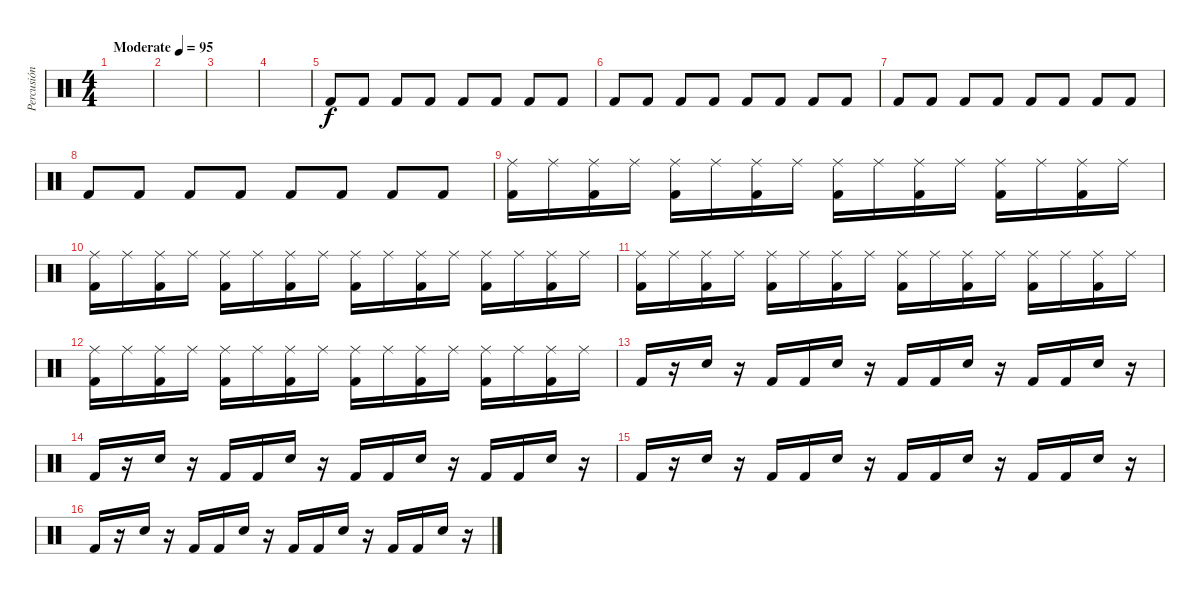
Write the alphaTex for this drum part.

\track ("Percusión" "Percusión") {instrument percussion}
\staff {score}
\articulation defaults
\ts (4 4)
\tempo (95 "Moderate")
\clef neutral
\ks c
|
|
|
|
"Kick (hit) 2".8 "Kick (hit) 2".8 "Kick (hit) 2".8 "Kick (hit) 2".8 "Kick (hit) 2".8 "Kick (hit) 2".8 "Kick (hit) 2".8 "Kick (hit) 2".8 |
"Kick (hit) 2".8 "Kick (hit) 2".8 "Kick (hit) 2".8 "Kick (hit) 2".8 "Kick (hit) 2".8 "Kick (hit) 2".8 "Kick (hit) 2".8 "Kick (hit) 2".8 |
"Kick (hit) 2".8 "Kick (hit) 2".8 "Kick (hit) 2".8 "Kick (hit) 2".8 "Kick (hit) 2".8 "Kick (hit) 2".8 "Kick (hit) 2".8 "Kick (hit) 2".8 |
"Kick (hit) 2".8 "Kick (hit) 2".8 "Kick (hit) 2".8 "Kick (hit) 2".8 "Kick (hit) 2".8 "Kick (hit) 2".8 "Kick (hit) 2".8 "Kick (hit) 2".8 |
("Ride (middle)" "Kick (hit) 2").16 "Ride (middle)".16 ("Ride (middle)" "Kick (hit) 2").16 "Ride (middle)".16 ("Ride (middle)" "Kick (hit) 2").16 "Ride (middle)".16 ("Ride (middle)" "Kick (hit) 2").16 "Ride (middle)".16 ("Ride (middle)" "Kick (hit) 2").16 "Ride (middle)".16 ("Ride (middle)" "Kick (hit) 2").16 "Ride (middle)".16 ("Ride (middle)" "Kick (hit) 2").16 "Ride (middle)".16 ("Ride (middle)" "Kick (hit) 2").16 "Ride (middle)".16 |
("Ride (middle)" "Kick (hit) 2").16 "Ride (middle)".16 ("Ride (middle)" "Kick (hit) 2").16 "Ride (middle)".16 ("Ride (middle)" "Kick (hit) 2").16 "Ride (middle)".16 ("Ride (middle)" "Kick (hit) 2").16 "Ride (middle)".16 ("Ride (middle)" "Kick (hit) 2").16 "Ride (middle)".16 ("Ride (middle)" "Kick (hit) 2").16 "Ride (middle)".16 ("Ride (middle)" "Kick (hit) 2").16 "Ride (middle)".16 ("Ride (middle)" "Kick (hit) 2").16 "Ride (middle)".16 |
("Ride (middle)" "Kick (hit) 2").16 "Ride (middle)".16 ("Ride (middle)" "Kick (hit) 2").16 "Ride (middle)".16 ("Ride (middle)" "Kick (hit) 2").16 "Ride (middle)".16 ("Ride (middle)" "Kick (hit) 2").16 "Ride (middle)".16 ("Ride (middle)" "Kick (hit) 2").16 "Ride (middle)".16 ("Ride (middle)" "Kick (hit) 2").16 "Ride (middle)".16 ("Ride (middle)" "Kick (hit) 2").16 "Ride (middle)".16 ("Ride (middle)" "Kick (hit) 2").16 "Ride (middle)".16 |
("Ride (middle)" "Kick (hit) 2").16 "Ride (middle)".16 ("Ride (middle)" "Kick (hit) 2").16 "Ride (middle)".16 ("Ride (middle)" "Kick (hit) 2").16 "Ride (middle)".16 ("Ride (middle)" "Kick (hit) 2").16 "Ride (middle)".16 ("Ride (middle)" "Kick (hit) 2").16 "Ride (middle)".16 ("Ride (middle)" "Kick (hit) 2").16 "Ride (middle)".16 ("Ride (middle)" "Kick (hit) 2").16 "Ride (middle)".16 ("Ride (middle)" "Kick (hit) 2").16 "Ride (middle)".16 |
"Kick (hit) 2".16 r.16 "Snare (hit) 2".16 r.16 "Kick (hit) 2".16 "Kick (hit) 2".16 "Snare (hit) 2".16 r.16 "Kick (hit) 2".16 "Kick (hit) 2".16 "Snare (hit) 2".16 r.16 "Kick (hit) 2".16 "Kick (hit) 2".16 "Snare (hit) 2".16 r.16 |
"Kick (hit) 2".16 r.16 "Snare (hit) 2".16 r.16 "Kick (hit) 2".16 "Kick (hit) 2".16 "Snare (hit) 2".16 r.16 "Kick (hit) 2".16 "Kick (hit) 2".16 "Snare (hit) 2".16 r.16 "Kick (hit) 2".16 "Kick (hit) 2".16 "Snare (hit) 2".16 r.16 |
"Kick (hit) 2".16 r.16 "Snare (hit) 2".16 r.16 "Kick (hit) 2".16 "Kick (hit) 2".16 "Snare (hit) 2".16 r.16 "Kick (hit) 2".16 "Kick (hit) 2".16 "Snare (hit) 2".16 r.16 "Kick (hit) 2".16 "Kick (hit) 2".16 "Snare (hit) 2".16 r.16 |
"Kick (hit) 2".16 r.16 "Snare (hit) 2".16 r.16 "Kick (hit) 2".16 "Kick (hit) 2".16 "Snare (hit) 2".16 r.16 "Kick (hit) 2".16 "Kick (hit) 2".16 "Snare (hit) 2".16 r.16 "Kick (hit) 2".16 "Kick (hit) 2".16 "Snare (hit) 2".16 r.16
